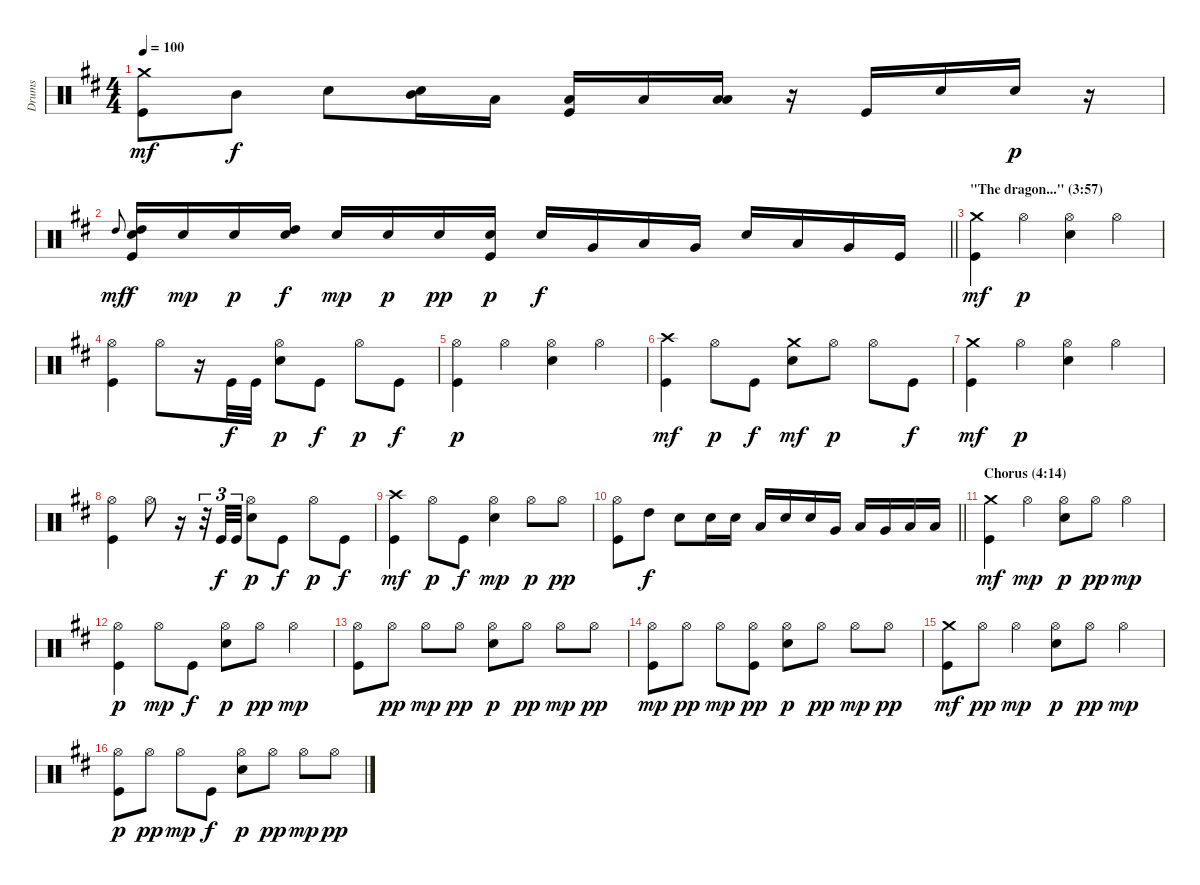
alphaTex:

\track ("Drums" "Drums") {instrument percussion}
\staff {score}
\articulation defaults
\ts (4 4)
\tempo 100
\clef neutral
\ks bminor
("Crash medium (hit)" "Kick (hit)").8{dy mf} "Mid Tom (hit)".8{dy f} "Snare (hit) 2".8 ("Mid Tom (hit)" "Snare (hit) 2").16 "Low Tom (hit)".16 ("Low Floor Tom (hit)" "Kick (hit)").16 "Low Floor Tom (hit)".16 ("Low Tom (hit)" "Low Floor Tom (hit)").16 r.16 "Kick (hit)".16 "Snare (hit) 2".16 "Snare (hit) 2".16{dy p} r.16 |
\barLineRight lightlight "High Tom (hit)".8{gr onbeat dy mf}
("High Tom (hit)" "Snare (hit) 2" "Kick (hit)").16{dy f} "Snare (hit) 2".16{dy mp} "Snare (hit) 2".16{dy p} ("High Tom (hit)" "Snare (hit) 2").16{dy f} "Snare (hit) 2".16{dy mp} "Snare (hit) 2".16{dy p} "Snare (hit) 2".16{dy pp} ("Snare (hit) 2" "Kick (hit)").16{dy p} "Snare (hit) 2".16{dy f} "Very Low Tom (hit)".16 "Low Tom (hit)".16 "Very Low Tom (hit)".16 "Snare (hit) 2".16 "Low Tom (hit)".16 "Very Low Tom (hit)".16 "Kick (hit)".16 |
\section ("" "\"The dragon...\" (3:57)")
("Crash medium (hit)" "Kick (hit)").4{dy mf} "Hi-Hat (open)".4{dy p} ("Hi-Hat (open)" "Snare (hit) 2").4 "Hi-Hat (open)".4 |
("Hi-Hat (open)" "Kick (hit)").4 "Hi-Hat (open)".8 r.16 "Kick (hit)".32{dy f} "Kick (hit)".32 ("Hi-Hat (open)" "Snare (hit) 2").8{dy p} "Kick (hit)".8{dy f} "Hi-Hat (open)".8{dy p} "Kick (hit)".8{dy f} |
("Hi-Hat (open)" "Kick (hit)").4{dy p} "Hi-Hat (open)".4 ("Hi-Hat (open)" "Snare (hit) 2").4 "Hi-Hat (open)".4 |
("Crash high (hit)" "Kick (hit)").4{dy mf} "Hi-Hat (open)".8{dy p} "Kick (hit)".8{dy f} ("Crash medium (hit)" "Snare (hit) 2").8{dy mf} "Hi-Hat (open)".8{dy p} "Hi-Hat (open)".8 "Kick (hit)".8{dy f} |
("Crash medium (hit)" "Kick (hit)").4{dy mf} "Hi-Hat (open)".4{dy p} ("Hi-Hat (open)" "Snare (hit) 2").4 "Hi-Hat (open)".4 |
("Hi-Hat (open)" "Kick (hit)").4 "Hi-Hat (open)".8 r.16 r.32{tu (3 2)} "Kick (hit)".32{tu (3 2) dy f} "Kick (hit)".32{tu (3 2)} ("Hi-Hat (open)" "Snare (hit) 2").8{dy p} "Kick (hit)".8{dy f} "Hi-Hat (open)".8{dy p} "Kick (hit)".8{dy f} |
("Crash high (hit)" "Kick (hit)").4{dy mf} "Hi-Hat (open)".8{dy p} "Kick (hit)".8{dy f} ("Hi-Hat (open)" "Snare (hit) 2").4{dy mp} "Hi-Hat (open)".8{dy p} "Hi-Hat (open)".8{dy pp} |
\barLineRight lightlight
("Hi-Hat (open)" "Kick (hit)").8 "High Tom (hit)".8{dy f} "Snare (hit) 2".8 "Snare (hit) 2".16 "Snare (hit) 2".16 "Low Tom (hit)".16 "Snare (hit) 2".16 "Snare (hit) 2".16 "Very Low Tom (hit)".16 "Low Tom (hit)".16 "Very Low Tom (hit)".16 "Low Floor Tom (hit)".16 "Low Floor Tom (hit)".16 |
\section ("" "Chorus (4:14)")
("Crash medium (hit)" "Kick (hit)").4{dy mf} "Hi-Hat (open)".4{dy mp} ("Hi-Hat (open)" "Snare (hit) 2").8{dy p} "Hi-Hat (open)".8{dy pp} "Hi-Hat (open)".4{dy mp} |
("Hi-Hat (open)" "Kick (hit)").4{dy p} "Hi-Hat (open)".8{dy mp} "Kick (hit)".8{dy f} ("Hi-Hat (open)" "Snare (hit) 2").8{dy p} "Hi-Hat (open)".8{dy pp} "Hi-Hat (open)".4{dy mp} |
("Hi-Hat (open)" "Kick (hit)").8 "Hi-Hat (open)".8{dy pp} "Hi-Hat (open)".8{dy mp} "Hi-Hat (open)".8{dy pp} ("Hi-Hat (open)" "Snare (hit) 2").8{dy p} "Hi-Hat (open)".8{dy pp} "Hi-Hat (open)".8{dy mp} "Hi-Hat (open)".8{dy pp} |
("Hi-Hat (open)" "Kick (hit)").8{dy mp} "Hi-Hat (open)".8{dy pp} "Hi-Hat (open)".8{dy mp} ("Hi-Hat (open)" "Kick (hit)").8{dy pp} ("Hi-Hat (open)" "Snare (hit) 2").8{dy p} "Hi-Hat (open)".8{dy pp} "Hi-Hat (open)".8{dy mp} "Hi-Hat (open)".8{dy pp} |
("Crash medium (hit)" "Kick (hit)").8{dy mf} "Hi-Hat (open)".8{dy pp} "Hi-Hat (open)".4{dy mp} ("Hi-Hat (open)" "Snare (hit) 2").8{dy p} "Hi-Hat (open)".8{dy pp} "Hi-Hat (open)".4{dy mp} |
("Hi-Hat (open)" "Kick (hit)").8{dy p} "Hi-Hat (open)".8{dy pp} "Hi-Hat (open)".8{dy mp} "Kick (hit)".8{dy f} ("Hi-Hat (open)" "Snare (hit) 2").8{dy p} "Hi-Hat (open)".8{dy pp} "Hi-Hat (open)".8{dy mp} "Hi-Hat (open)".8{dy pp}
